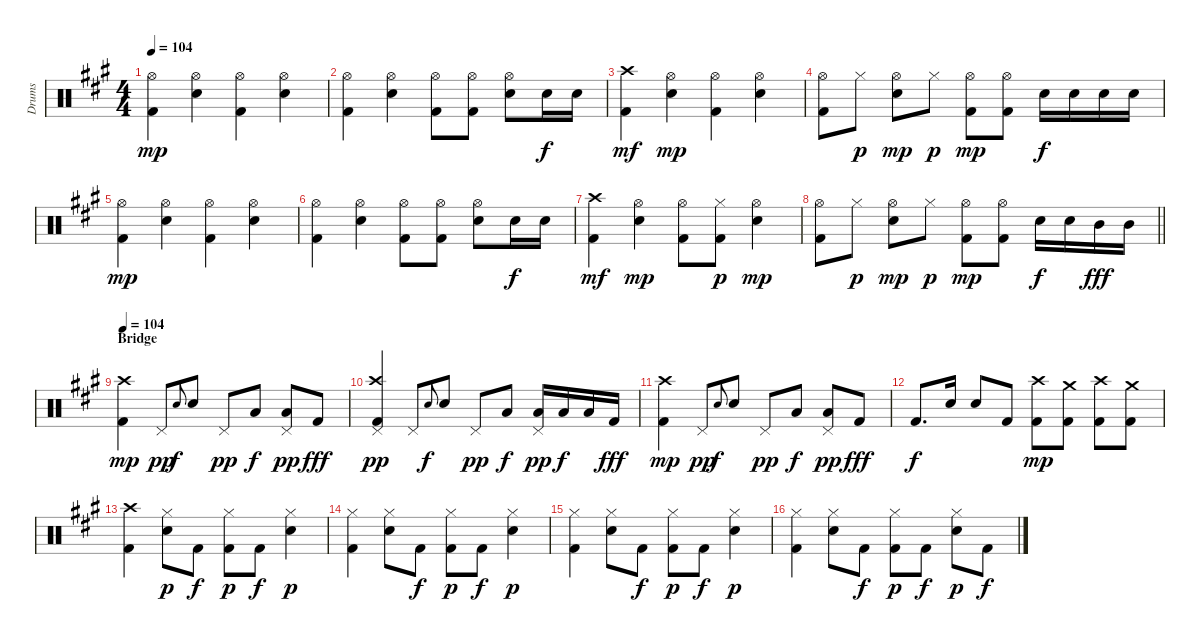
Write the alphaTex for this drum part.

\track ("Drums" "Drums") {instrument percussion}
\staff {score}
\articulation defaults
\ts (4 4)
\tempo 104
\clef neutral
\ks a
("Hi-Hat (open)" "Kick (hit) 2").4{dy mp} ("Hi-Hat (open)" "Electric Snare (hit)").4 ("Hi-Hat (open)" "Kick (hit) 2").4 ("Hi-Hat (open)" "Electric Snare (hit)").4 |
("Hi-Hat (open)" "Kick (hit) 2").4 ("Hi-Hat (open)" "Electric Snare (hit)").4 ("Hi-Hat (open)" "Kick (hit) 2").8 ("Hi-Hat (open)" "Kick (hit) 2").8 ("Hi-Hat (open)" "Electric Snare (hit)").8 "Electric Snare (hit)".16{dy f} "Electric Snare (hit)".16 |
("Kick (hit) 2" "Crash high (hit)").4{dy mf} ("Hi-Hat (open)" "Electric Snare (hit)").4{dy mp} ("Hi-Hat (open)" "Kick (hit) 2").4 ("Hi-Hat (open)" "Electric Snare (hit)").4 |
("Hi-Hat (open)" "Kick (hit) 2").8 "Hi-Hat (closed)".8{dy p} ("Hi-Hat (open)" "Electric Snare (hit)").8{dy mp} "Hi-Hat (closed)".8{dy p} ("Hi-Hat (open)" "Kick (hit) 2").8{dy mp} ("Hi-Hat (open)" "Kick (hit) 2").8 "Electric Snare (hit)".16{dy f} "Electric Snare (hit)".16 "Electric Snare (hit)".16 "Electric Snare (hit)".16 |
("Hi-Hat (open)" "Kick (hit) 2").4{dy mp} ("Hi-Hat (open)" "Electric Snare (hit)").4 ("Hi-Hat (open)" "Kick (hit) 2").4 ("Hi-Hat (open)" "Electric Snare (hit)").4 |
("Hi-Hat (open)" "Kick (hit) 2").4 ("Hi-Hat (open)" "Electric Snare (hit)").4 ("Hi-Hat (open)" "Kick (hit) 2").8 ("Hi-Hat (open)" "Kick (hit) 2").8 ("Hi-Hat (open)" "Electric Snare (hit)").8 "Electric Snare (hit)".16{dy f} "Electric Snare (hit)".16 |
("Kick (hit) 2" "Crash high (hit)").4{dy mf} ("Hi-Hat (open)" "Electric Snare (hit)").4{dy mp} ("Hi-Hat (open)" "Kick (hit) 2").8 ("Hi-Hat (closed)" "Kick (hit) 2").8{dy p} ("Hi-Hat (open)" "Electric Snare (hit)").4{dy mp} |
\barLineRight lightlight
("Hi-Hat (open)" "Kick (hit) 2").8 "Hi-Hat (closed)".8{dy p} ("Hi-Hat (open)" "Electric Snare (hit)").8{dy mp} "Hi-Hat (closed)".8{dy p} ("Hi-Hat (open)" "Kick (hit) 2").8{dy mp} ("Hi-Hat (open)" "Kick (hit) 2").8 "Electric Snare (hit)".16{dy f} "Electric Snare (hit)".16 "Mid Tom (hit)".16{dy fff} "Mid Tom (hit)".16 |
\section ("" "Bridge")
\tempo 104
("Crash high (hit)" "Kick (hit) 2").4{dy mp} "Pedal Hi-Hat (hit)".8{dy pp} "Electric Snare (hit)".8{gr onbeat dy f} "Electric Snare (hit)".8 "Pedal Hi-Hat (hit)".8{dy pp} "Low Tom (hit)".8{dy f} ("Low Tom (hit)" "Pedal Hi-Hat (hit)").8{dy pp} "Kick (hit) 2".8{dy fff} |
("Crash high (hit)" "Kick (hit) 2" "Pedal Hi-Hat (hit)").4{dy pp} "Pedal Hi-Hat (hit)".8 "Electric Snare (hit)".8{gr onbeat dy f} "Electric Snare (hit)".8 "Pedal Hi-Hat (hit)".8{dy pp} "Low Tom (hit)".8{dy f} ("Low Tom (hit)" "Pedal Hi-Hat (hit)").16{dy pp} "Low Tom (hit)".16{dy f} "Low Tom (hit)".16 "Kick (hit) 2".16{dy fff} |
("Crash high (hit)" "Kick (hit) 2").4{dy mp} "Pedal Hi-Hat (hit)".8{dy pp} "Electric Snare (hit)".8{gr onbeat dy f} "Electric Snare (hit)".8 "Pedal Hi-Hat (hit)".8{dy pp} "Low Tom (hit)".8{dy f} ("Low Tom (hit)" "Pedal Hi-Hat (hit)").8{dy pp} "Kick (hit) 2".8{dy fff} |
"Kick (hit) 2".8{d dy f} "Electric Snare (hit)".16 "Electric Snare (hit)".8 "Kick (hit) 2".8 ("Kick (hit) 2" "Crash high (hit)").8{dy mp} ("Kick (hit) 2" "Crash medium (hit)").8 ("Kick (hit) 2" "Crash high (hit)").8 ("Kick (hit) 2" "Crash medium (hit)").8 |
("Kick (hit) 2" "Crash high (hit)").4 ("Electric Snare (hit)" "Hi-Hat (closed)").8{dy p} "Kick (hit) 2".8{dy f} ("Kick (hit) 2" "Hi-Hat (closed)").8{dy p} "Kick (hit) 2".8{dy f} ("Electric Snare (hit)" "Hi-Hat (closed)").4{dy p} |
("Kick (hit) 2" "Hi-Hat (closed)").4 ("Electric Snare (hit)" "Hi-Hat (closed)").8 "Kick (hit) 2".8{dy f} ("Kick (hit) 2" "Hi-Hat (closed)").8{dy p} "Kick (hit) 2".8{dy f} ("Electric Snare (hit)" "Hi-Hat (closed)").4{dy p} |
("Kick (hit) 2" "Hi-Hat (closed)").4 ("Electric Snare (hit)" "Hi-Hat (closed)").8 "Kick (hit) 2".8{dy f} ("Kick (hit) 2" "Hi-Hat (closed)").8{dy p} "Kick (hit) 2".8{dy f} ("Electric Snare (hit)" "Hi-Hat (closed)").4{dy p} |
("Kick (hit) 2" "Hi-Hat (closed)").4 ("Electric Snare (hit)" "Hi-Hat (closed)").8 "Kick (hit) 2".8{dy f} ("Kick (hit) 2" "Hi-Hat (closed)").8{dy p} "Kick (hit) 2".8{dy f} ("Electric Snare (hit)" "Hi-Hat (closed)").8{dy p} "Kick (hit) 2".8{dy f}
